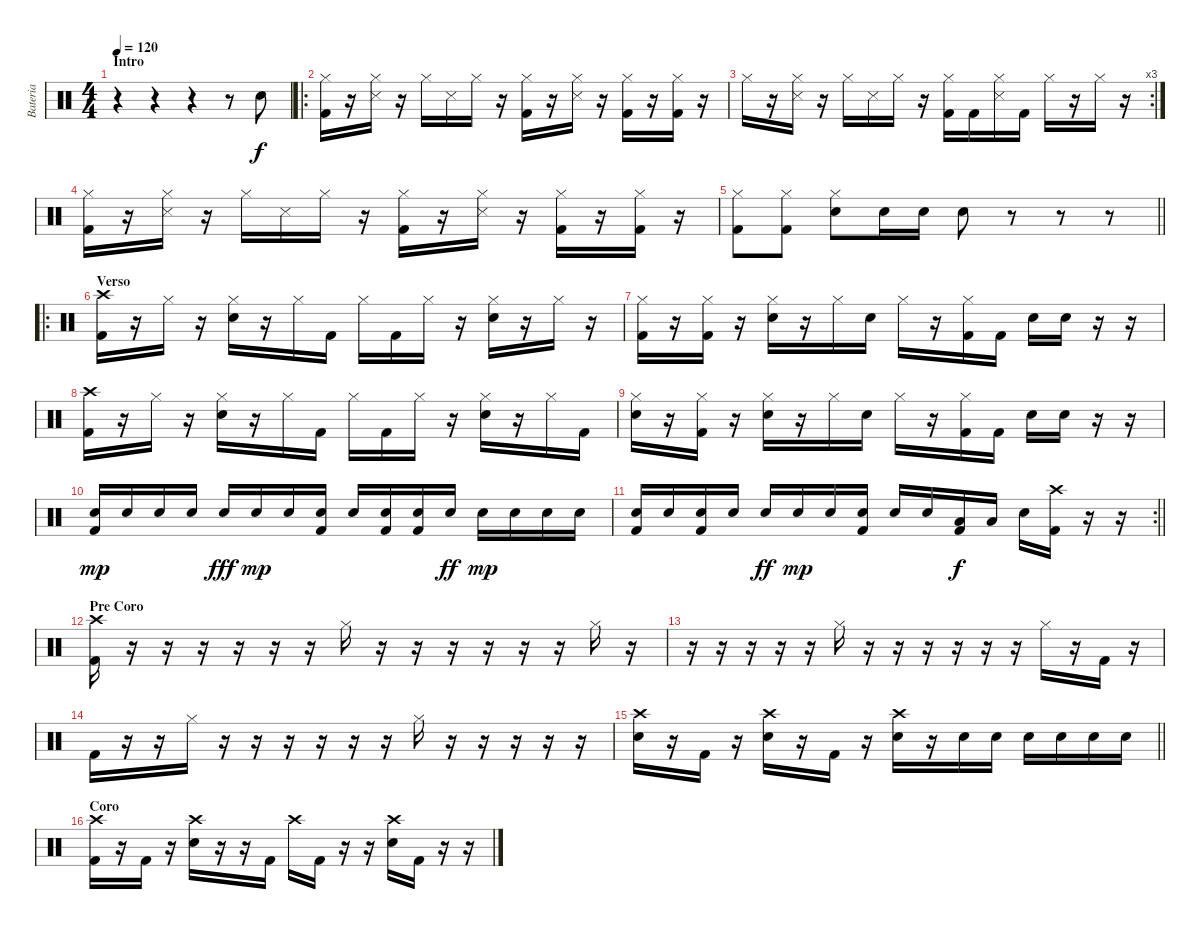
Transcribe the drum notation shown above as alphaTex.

\track ("Bateria" "Bateria") {instrument percussion}
\staff {score}
\articulation defaults
\ts (4 4)
\section ("" "Intro")
\tempo 120
\clef neutral
\ks c
r.4{dy f} r.4 r.4 r.8 "Snare (hit) 2".8 |
\ro
("Hi-Hat (closed)" "Kick (hit) 2").16 r.16 ("Hi-Hat (closed)" "Snare (side stick) 3").16 r.16 "Hi-Hat (closed)".16 "Snare (side stick) 3".16 "Hi-Hat (closed)".16 r.16 ("Hi-Hat (closed)" "Kick (hit) 2").16 r.16 ("Hi-Hat (closed)" "Snare (side stick) 3").16 r.16 ("Hi-Hat (closed)" "Kick (hit) 2").16 r.16 ("Hi-Hat (closed)" "Kick (hit) 2").16 r.16 |
\rc 3 "Hi-Hat (closed)".16
r.16 ("Hi-Hat (closed)" "Snare (side stick) 3").16 r.16 "Hi-Hat (closed)".16 "Snare (side stick) 3".16 "Hi-Hat (closed)".16 r.16 ("Hi-Hat (closed)" "Kick (hit) 2").16 "Kick (hit) 2".16 ("Hi-Hat (closed)" "Snare (side stick) 3").16 "Kick (hit) 2".16 "Hi-Hat (closed)".16 r.16 "Hi-Hat (closed)".16 r.16 |
("Hi-Hat (closed)" "Kick (hit) 2").16 r.16 ("Hi-Hat (closed)" "Snare (side stick) 3").16 r.16 "Hi-Hat (closed)".16 "Snare (side stick) 3".16 "Hi-Hat (closed)".16 r.16 ("Hi-Hat (closed)" "Kick (hit) 2").16 r.16 ("Hi-Hat (closed)" "Snare (side stick) 3").16 r.16 ("Hi-Hat (closed)" "Kick (hit) 2").16 r.16 ("Hi-Hat (closed)" "Kick (hit) 2").16 r.16 |
\barLineRight lightlight
("Hi-Hat (closed)" "Kick (hit) 2").8 ("Hi-Hat (closed)" "Kick (hit) 2").8 ("Hi-Hat (closed)" "Snare (hit) 2").8 "Snare (hit) 2".16 "Snare (hit) 2".16 "Snare (hit) 2".8 r.8 r.8 r.8 |
\ro
\section ("" "Verso")
("Crash high (hit)" "Kick (hit) 2").16 r.16 "Hi-Hat (closed)".16 r.16 ("Hi-Hat (closed)" "Snare (hit) 2").16 r.16 "Hi-Hat (closed)".16 "Kick (hit) 2".16 "Hi-Hat (closed)".16 "Kick (hit) 2".16 "Hi-Hat (closed)".16 r.16 ("Hi-Hat (closed)" "Snare (hit) 2").16 r.16 "Hi-Hat (closed)".16 r.16 |
("Hi-Hat (closed)" "Kick (hit) 2").16 r.16 ("Hi-Hat (closed)" "Kick (hit) 2").16 r.16 ("Hi-Hat (closed)" "Snare (hit) 2").16 r.16 "Hi-Hat (closed)".16 "Snare (hit) 2".16 "Hi-Hat (closed)".16 r.16 ("Hi-Hat (closed)" "Kick (hit) 2").16 "Kick (hit) 2".16 "Snare (hit) 2".16 "Snare (hit) 2".16 r.16 r.16 |
("Crash high (hit)" "Kick (hit) 2").16 r.16 "Hi-Hat (closed)".16 r.16 ("Hi-Hat (closed)" "Snare (hit) 2").16 r.16 "Hi-Hat (closed)".16 "Kick (hit) 2".16 "Hi-Hat (closed)".16 "Kick (hit) 2".16 "Hi-Hat (closed)".16 r.16 ("Hi-Hat (closed)" "Snare (hit) 2").16 r.16 "Hi-Hat (closed)".16 "Kick (hit) 2".16 |
("Hi-Hat (closed)" "Snare (hit) 2").16 r.16 ("Hi-Hat (closed)" "Kick (hit) 2").16 r.16 ("Hi-Hat (closed)" "Snare (hit) 2").16 r.16 "Hi-Hat (closed)".16 "Snare (hit) 2".16 "Hi-Hat (closed)".16 r.16 ("Hi-Hat (closed)" "Kick (hit) 2").16 "Kick (hit) 2".16 "Snare (hit) 2".16 "Snare (hit) 2".16 r.16 r.16 |
("Snare (hit) 2" "Kick (hit) 2").16{dy mp} "Snare (hit) 2".16 "Snare (hit) 2".16 "Snare (hit) 2".16 "Snare (hit) 2".16{dy fff} "Snare (hit) 2".16{dy mp} "Snare (hit) 2".16 ("Snare (hit) 2" "Kick (hit) 2").16 "Snare (hit) 2".16 ("Snare (hit) 2" "Kick (hit) 2").16 ("Snare (hit) 2" "Kick (hit) 2").16 "Snare (hit) 2".16{dy ff} "Snare (hit) 2".16{dy mp} "Snare (hit) 2".16 "Snare (hit) 2".16 "Snare (hit) 2".16 |
\rc 2
\barLineRight lightlight
("Snare (hit) 2" "Kick (hit) 2").16 "Snare (hit) 2".16 ("Snare (hit) 2" "Kick (hit) 2").16 "Snare (hit) 2".16 "Snare (hit) 2".16{dy ff} "Snare (hit) 2".16{dy mp} "Snare (hit) 2".16 ("Snare (hit) 2" "Kick (hit) 2").16 "Snare (hit) 2".16 "Snare (hit) 2".16 ("Low Tom (hit)" "Kick (hit) 2").16{dy f} "Low Tom (hit)".16 "Snare (hit) 2".16 ("Crash high (hit)" "Kick (hit) 2").16 r.16 r.16 |
\section ("" "Pre Coro")
("Crash high (hit)" "Kick (hit) 2").16 r.16 r.16 r.16 r.16 r.16 r.16 "Hi-Hat (closed)".16 r.16 r.16 r.16 r.16 r.16 r.16 "Hi-Hat (closed)".16 r.16 |
r.16 r.16 r.16 r.16 r.16 "Hi-Hat (closed)".16 r.16 r.16 r.16 r.16 r.16 r.16 "Hi-Hat (closed)".16 r.16 "Kick (hit) 2".16 r.16 |
"Kick (hit) 2".16 r.16 r.16 "Hi-Hat (closed)".16 r.16 r.16 r.16 r.16 r.16 r.16 "Hi-Hat (closed)".16 r.16 r.16 r.16 r.16 r.16 |
\barLineRight lightlight
("Crash high (hit)" "Snare (hit) 2").16 r.16 "Kick (hit) 2".16 r.16 ("Crash high (hit)" "Snare (hit) 2").16 r.16 "Kick (hit) 2".16 r.16 ("Crash high (hit)" "Snare (hit) 2").16 r.16 "Snare (hit) 2".16 "Snare (hit) 2".16 "Snare (hit) 2".16 "Snare (hit) 2".16 "Snare (hit) 2".16 "Snare (hit) 2".16 |
\section ("" "Coro")
("Crash high (hit)" "Kick (hit) 2").16 r.16 "Kick (hit) 2".16 r.16 ("Crash high (hit)" "Snare (hit) 2").16 r.16 r.16 "Kick (hit) 2".16 "Crash high (hit)".16 "Kick (hit) 2".16 r.16 r.16 ("Crash high (hit)" "Snare (hit) 2").16 "Kick (hit) 2".16 r.16 r.16
